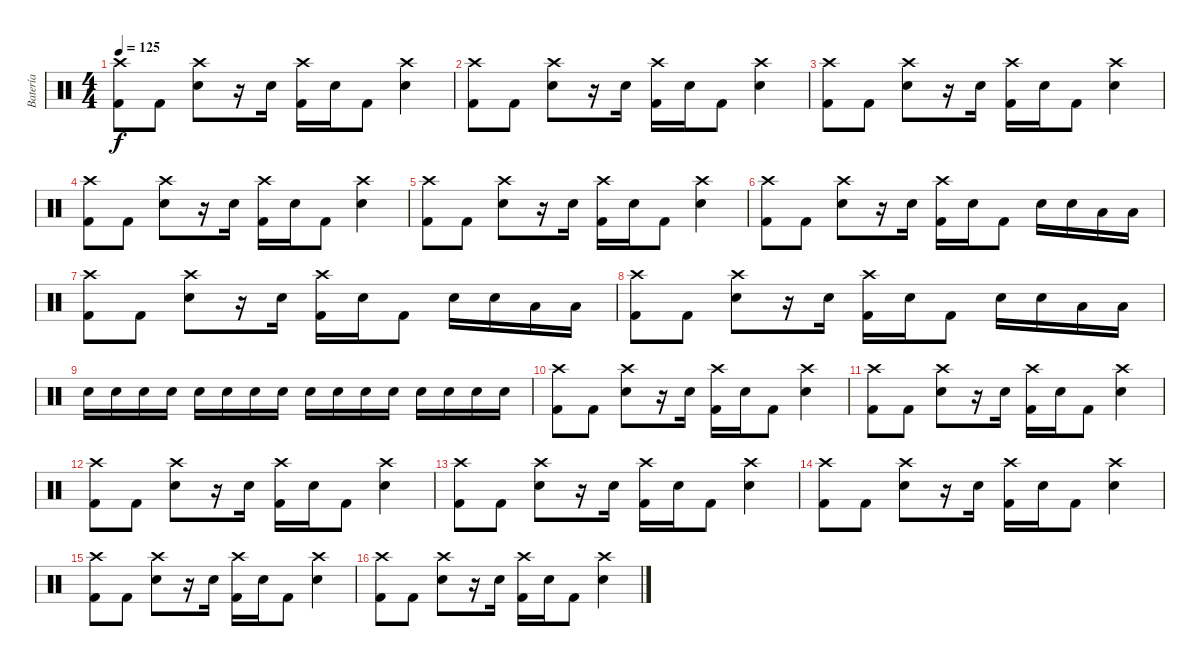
\track ("Batería" "Batería") {instrument percussion}
\staff {score}
\articulation defaults
\ts (4 4)
\tempo 125
\clef neutral
\ks c
("Crash high (hit)" "Kick (hit) 2").8{dy f} "Kick (hit) 2".8 ("Crash high (hit)" "Snare (hit) 2").8 r.16 "Snare (hit) 2".16 ("Crash high (hit)" "Kick (hit) 2").16 "Snare (hit) 2".16 "Kick (hit) 2".8 ("Crash high (hit)" "Snare (hit) 2").4 |
("Crash high (hit)" "Kick (hit) 2").8 "Kick (hit) 2".8 ("Crash high (hit)" "Snare (hit) 2").8 r.16 "Snare (hit) 2".16 ("Crash high (hit)" "Kick (hit) 2").16 "Snare (hit) 2".16 "Kick (hit) 2".8 ("Crash high (hit)" "Snare (hit) 2").4 |
("Crash high (hit)" "Kick (hit) 2").8 "Kick (hit) 2".8 ("Crash high (hit)" "Snare (hit) 2").8 r.16 "Snare (hit) 2".16 ("Crash high (hit)" "Kick (hit) 2").16 "Snare (hit) 2".16 "Kick (hit) 2".8 ("Crash high (hit)" "Snare (hit) 2").4 |
("Crash high (hit)" "Kick (hit) 2").8 "Kick (hit) 2".8 ("Crash high (hit)" "Snare (hit) 2").8 r.16 "Snare (hit) 2".16 ("Crash high (hit)" "Kick (hit) 2").16 "Snare (hit) 2".16 "Kick (hit) 2".8 ("Crash high (hit)" "Snare (hit) 2").4 |
("Crash high (hit)" "Kick (hit) 2").8 "Kick (hit) 2".8 ("Crash high (hit)" "Snare (hit) 2").8 r.16 "Snare (hit) 2".16 ("Crash high (hit)" "Kick (hit) 2").16 "Snare (hit) 2".16 "Kick (hit) 2".8 ("Crash high (hit)" "Snare (hit) 2").4 |
("Crash high (hit)" "Kick (hit) 2").8 "Kick (hit) 2".8 ("Crash high (hit)" "Snare (hit) 2").8 r.16 "Snare (hit) 2".16 ("Crash high (hit)" "Kick (hit) 2").16 "Snare (hit) 2".16 "Kick (hit) 2".8 "Snare (hit) 2".16 "Snare (hit) 2".16 "Low Tom (hit)".16 "Low Tom (hit)".16 |
("Crash high (hit)" "Kick (hit) 2").8 "Kick (hit) 2".8 ("Crash high (hit)" "Snare (hit) 2").8 r.16 "Snare (hit) 2".16 ("Crash high (hit)" "Kick (hit) 2").16 "Snare (hit) 2".16 "Kick (hit) 2".8 "Snare (hit) 2".16 "Snare (hit) 2".16 "Low Tom (hit)".16 "Low Tom (hit)".16 |
("Crash high (hit)" "Kick (hit) 2").8 "Kick (hit) 2".8 ("Crash high (hit)" "Snare (hit) 2").8 r.16 "Snare (hit) 2".16 ("Crash high (hit)" "Kick (hit) 2").16 "Snare (hit) 2".16 "Kick (hit) 2".8 "Snare (hit) 2".16 "Snare (hit) 2".16 "Low Tom (hit)".16 "Low Tom (hit)".16 |
"Snare (hit) 2".16 "Snare (hit) 2".16 "Snare (hit) 2".16 "Snare (hit) 2".16 "Snare (hit) 2".16 "Snare (hit) 2".16 "Snare (hit) 2".16 "Snare (hit) 2".16 "Snare (hit) 2".16 "Snare (hit) 2".16 "Snare (hit) 2".16 "Snare (hit) 2".16 "Snare (hit) 2".16 "Snare (hit) 2".16 "Snare (hit) 2".16 "Snare (hit) 2".16 |
("Crash high (hit)" "Kick (hit) 2").8 "Kick (hit) 2".8 ("Crash high (hit)" "Snare (hit) 2").8 r.16 "Snare (hit) 2".16 ("Crash high (hit)" "Kick (hit) 2").16 "Snare (hit) 2".16 "Kick (hit) 2".8 ("Crash high (hit)" "Snare (hit) 2").4 |
("Crash high (hit)" "Kick (hit) 2").8 "Kick (hit) 2".8 ("Crash high (hit)" "Snare (hit) 2").8 r.16 "Snare (hit) 2".16 ("Crash high (hit)" "Kick (hit) 2").16 "Snare (hit) 2".16 "Kick (hit) 2".8 ("Crash high (hit)" "Snare (hit) 2").4 |
("Crash high (hit)" "Kick (hit) 2").8 "Kick (hit) 2".8 ("Crash high (hit)" "Snare (hit) 2").8 r.16 "Snare (hit) 2".16 ("Crash high (hit)" "Kick (hit) 2").16 "Snare (hit) 2".16 "Kick (hit) 2".8 ("Crash high (hit)" "Snare (hit) 2").4 |
("Crash high (hit)" "Kick (hit) 2").8 "Kick (hit) 2".8 ("Crash high (hit)" "Snare (hit) 2").8 r.16 "Snare (hit) 2".16 ("Crash high (hit)" "Kick (hit) 2").16 "Snare (hit) 2".16 "Kick (hit) 2".8 ("Crash high (hit)" "Snare (hit) 2").4 |
("Crash high (hit)" "Kick (hit) 2").8 "Kick (hit) 2".8 ("Crash high (hit)" "Snare (hit) 2").8 r.16 "Snare (hit) 2".16 ("Crash high (hit)" "Kick (hit) 2").16 "Snare (hit) 2".16 "Kick (hit) 2".8 ("Crash high (hit)" "Snare (hit) 2").4 |
("Crash high (hit)" "Kick (hit) 2").8 "Kick (hit) 2".8 ("Crash high (hit)" "Snare (hit) 2").8 r.16 "Snare (hit) 2".16 ("Crash high (hit)" "Kick (hit) 2").16 "Snare (hit) 2".16 "Kick (hit) 2".8 ("Crash high (hit)" "Snare (hit) 2").4 |
("Crash high (hit)" "Kick (hit) 2").8 "Kick (hit) 2".8 ("Crash high (hit)" "Snare (hit) 2").8 r.16 "Snare (hit) 2".16 ("Crash high (hit)" "Kick (hit) 2").16 "Snare (hit) 2".16 "Kick (hit) 2".8 ("Crash high (hit)" "Snare (hit) 2").4
